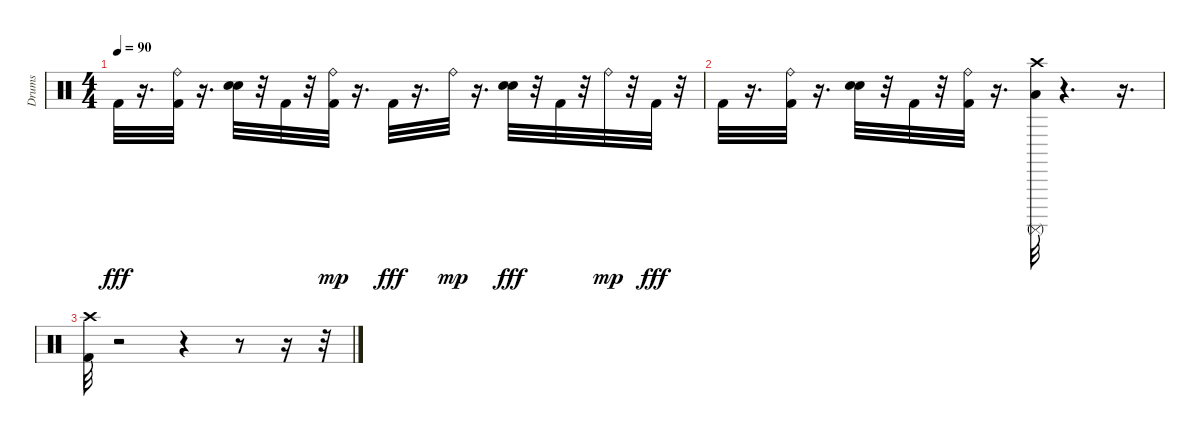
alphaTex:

\track ("Drums" "Drums") {instrument percussion}
\staff {score}
\articulation defaults
\ts (4 4)
\tempo 90
\clef neutral
\ks c "Kick (hit) 2".32{dy fff}
r.16{d} ("Ride (bell)" "Kick (hit) 2").32 r.16{d} ("Hand Clap (hit)" "Electric Snare (hit)").32 r.32 "Kick (hit) 2".32 r.32 ("Ride (bell)" "Kick (hit) 2").32{dy mp} r.16{d} "Kick (hit) 2".32{dy fff} r.16{d} "Ride (bell)".32{dy mp} r.16{d} ("Hand Clap (hit)" "Electric Snare (hit)").32{dy fff} r.32 "Kick (hit) 2".32 r.32 "Ride (bell)".32{dy mp} r.32 "Kick (hit) 2".32{dy fff} r.32 |
"Kick (hit) 2".32 r.16{d} ("Ride (bell)" "Kick (hit) 2").32 r.16{d} ("Hand Clap (hit)" "Electric Snare (hit)").32 r.32 "Kick (hit) 2".32 r.32 ("Ride (bell)" "Kick (hit) 2").32 r.16{d} ("Crash high (hit)" "Surdo (mute)" "Low Floor Tom (hit)").32 r.4{d} r.16{d} |
("Crash high (hit)" "Kick (hit) 2").32 r.2 r.4 r.8 r.16 r.32
